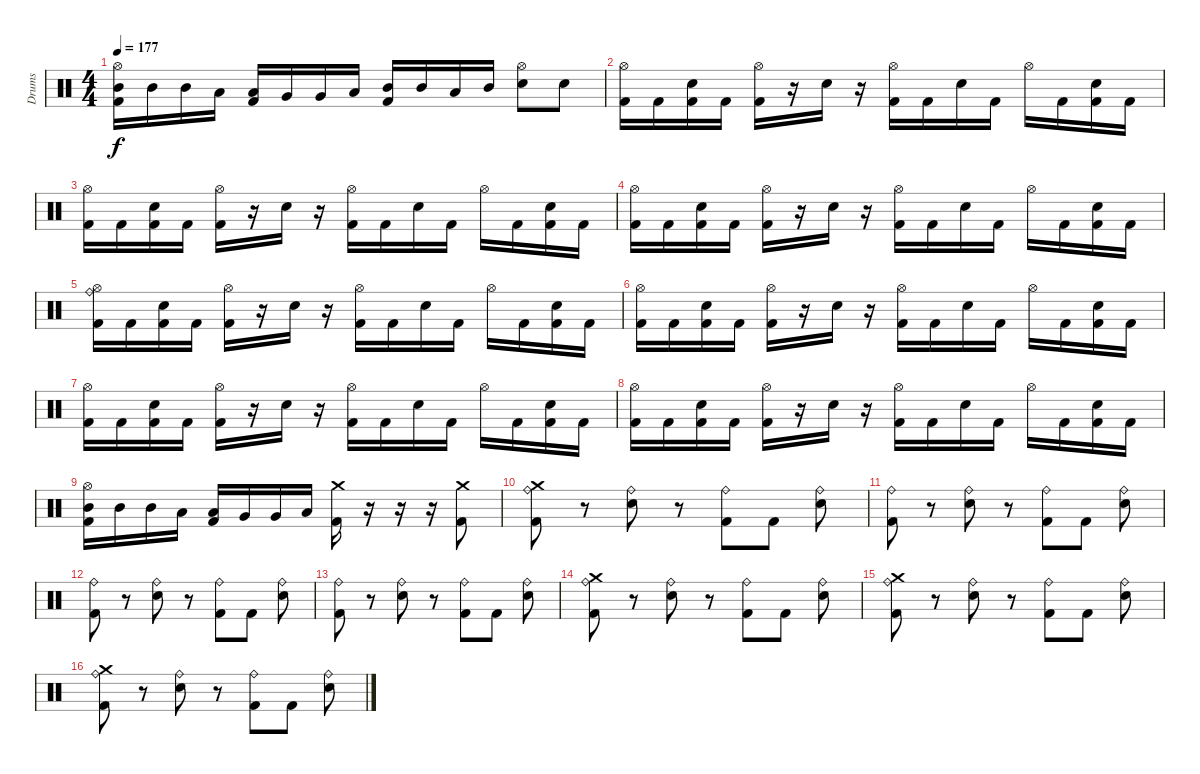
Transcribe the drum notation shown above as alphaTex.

\track ("Drums" "Drums") {instrument percussion}
\staff {score}
\articulation defaults
\ts (4 4)
\tempo 177
\clef neutral
\ks c
("Hi-Hat (open)" "Mid Tom (hit)" "Kick (hit) 2").16{dy f} "Mid Tom (hit)".16 "Mid Tom (hit)".16 "Low Tom (hit)".16 ("Low Tom (hit)" "Kick (hit) 2").16 "Very Low Tom (hit)".16 "Very Low Tom (hit)".16 "Low Tom (hit)".16 ("Mid Tom (hit)" "Kick (hit) 2").16 "Mid Tom (hit)".16 "Low Tom (hit)".16 "Mid Tom (hit)".16 ("Hi-Hat (open)" "Snare (hit) 2").8 "Snare (hit) 2".8 |
("Hi-Hat (open)" "Kick (hit) 2").16 "Kick (hit) 2".16 ("Snare (hit) 2" "Kick (hit) 2").16 "Kick (hit) 2".16 ("Hi-Hat (open)" "Kick (hit) 2").16 r.16 "Snare (hit) 2".16 r.16 ("Hi-Hat (open)" "Kick (hit) 2").16 "Kick (hit) 2".16 "Snare (hit) 2".16 "Kick (hit) 2".16 "Hi-Hat (open)".16 "Kick (hit) 2".16 ("Snare (hit) 2" "Kick (hit) 2").16 "Kick (hit) 2".16 |
("Hi-Hat (open)" "Kick (hit) 2").16 "Kick (hit) 2".16 ("Snare (hit) 2" "Kick (hit) 2").16 "Kick (hit) 2".16 ("Hi-Hat (open)" "Kick (hit) 2").16 r.16 "Snare (hit) 2".16 r.16 ("Hi-Hat (open)" "Kick (hit) 2").16 "Kick (hit) 2".16 "Snare (hit) 2".16 "Kick (hit) 2".16 "Hi-Hat (open)".16 "Kick (hit) 2".16 ("Snare (hit) 2" "Kick (hit) 2").16 "Kick (hit) 2".16 |
("Hi-Hat (open)" "Kick (hit) 2").16 "Kick (hit) 2".16 ("Snare (hit) 2" "Kick (hit) 2").16 "Kick (hit) 2".16 ("Hi-Hat (open)" "Kick (hit) 2").16 r.16 "Snare (hit) 2".16 r.16 ("Hi-Hat (open)" "Kick (hit) 2").16 "Kick (hit) 2".16 "Snare (hit) 2".16 "Kick (hit) 2".16 "Hi-Hat (open)".16 "Kick (hit) 2".16 ("Snare (hit) 2" "Kick (hit) 2").16 "Kick (hit) 2".16 |
("Hi-Hat (open)" "Ride (bell)" "Kick (hit) 2").16 "Kick (hit) 2".16 ("Snare (hit) 2" "Kick (hit) 2").16 "Kick (hit) 2".16 ("Hi-Hat (open)" "Kick (hit) 2").16 r.16 "Snare (hit) 2".16 r.16 ("Hi-Hat (open)" "Kick (hit) 2").16 "Kick (hit) 2".16 "Snare (hit) 2".16 "Kick (hit) 2".16 "Hi-Hat (open)".16 "Kick (hit) 2".16 ("Snare (hit) 2" "Kick (hit) 2").16 "Kick (hit) 2".16 |
("Hi-Hat (open)" "Kick (hit) 2").16 "Kick (hit) 2".16 ("Snare (hit) 2" "Kick (hit) 2").16 "Kick (hit) 2".16 ("Hi-Hat (open)" "Kick (hit) 2").16 r.16 "Snare (hit) 2".16 r.16 ("Hi-Hat (open)" "Kick (hit) 2").16 "Kick (hit) 2".16 "Snare (hit) 2".16 "Kick (hit) 2".16 "Hi-Hat (open)".16 "Kick (hit) 2".16 ("Snare (hit) 2" "Kick (hit) 2").16 "Kick (hit) 2".16 |
("Hi-Hat (open)" "Kick (hit) 2").16 "Kick (hit) 2".16 ("Snare (hit) 2" "Kick (hit) 2").16 "Kick (hit) 2".16 ("Hi-Hat (open)" "Kick (hit) 2").16 r.16 "Snare (hit) 2".16 r.16 ("Hi-Hat (open)" "Kick (hit) 2").16 "Kick (hit) 2".16 "Snare (hit) 2".16 "Kick (hit) 2".16 "Hi-Hat (open)".16 "Kick (hit) 2".16 ("Snare (hit) 2" "Kick (hit) 2").16 "Kick (hit) 2".16 |
("Hi-Hat (open)" "Kick (hit) 2").16 "Kick (hit) 2".16 ("Snare (hit) 2" "Kick (hit) 2").16 "Kick (hit) 2".16 ("Hi-Hat (open)" "Kick (hit) 2").16 r.16 "Snare (hit) 2".16 r.16 ("Hi-Hat (open)" "Kick (hit) 2").16 "Kick (hit) 2".16 "Snare (hit) 2".16 "Kick (hit) 2".16 "Hi-Hat (open)".16 "Kick (hit) 2".16 ("Snare (hit) 2" "Kick (hit) 2").16 "Kick (hit) 2".16 |
("Hi-Hat (open)" "Mid Tom (hit)" "Kick (hit) 2").16 "Mid Tom (hit)".16 "Mid Tom (hit)".16 "Low Tom (hit)".16 ("Low Tom (hit)" "Kick (hit) 2").16 "Very Low Tom (hit)".16 "Very Low Tom (hit)".16 "Low Tom (hit)".16 ("Crash medium (hit)" "Kick (hit) 2").16 r.16 r.16 r.16 ("Crash medium (hit)" "Kick (hit) 2").8 |
("Ride (bell)" "Crash medium (hit)" "Kick (hit) 2").8 r.8 ("Ride (bell)" "Snare (hit) 2").8 r.8 ("Ride (bell)" "Kick (hit) 2").8 "Kick (hit) 2".8 ("Ride (bell)" "Snare (hit) 2").8 |
("Ride (bell)" "Kick (hit) 2").8 r.8 ("Ride (bell)" "Snare (hit) 2").8 r.8 ("Ride (bell)" "Kick (hit) 2").8 "Kick (hit) 2".8 ("Ride (bell)" "Snare (hit) 2").8 |
("Ride (bell)" "Kick (hit) 2").8 r.8 ("Ride (bell)" "Snare (hit) 2").8 r.8 ("Ride (bell)" "Kick (hit) 2").8 "Kick (hit) 2".8 ("Ride (bell)" "Snare (hit) 2").8 |
("Ride (bell)" "Kick (hit) 2").8 r.8 ("Ride (bell)" "Snare (hit) 2").8 r.8 ("Ride (bell)" "Kick (hit) 2").8 "Kick (hit) 2".8 ("Ride (bell)" "Snare (hit) 2").8 |
("Ride (bell)" "Crash medium (hit)" "Kick (hit) 2").8 r.8 ("Ride (bell)" "Snare (hit) 2").8 r.8 ("Ride (bell)" "Kick (hit) 2").8 "Kick (hit) 2".8 ("Ride (bell)" "Snare (hit) 2").8 |
("Ride (bell)" "Crash medium (hit)" "Kick (hit) 2").8 r.8 ("Ride (bell)" "Snare (hit) 2").8 r.8 ("Ride (bell)" "Kick (hit) 2").8 "Kick (hit) 2".8 ("Ride (bell)" "Snare (hit) 2").8 |
("Ride (bell)" "Crash medium (hit)" "Kick (hit) 2").8 r.8 ("Ride (bell)" "Snare (hit) 2").8 r.8 ("Ride (bell)" "Kick (hit) 2").8 "Kick (hit) 2".8 ("Ride (bell)" "Snare (hit) 2").8
